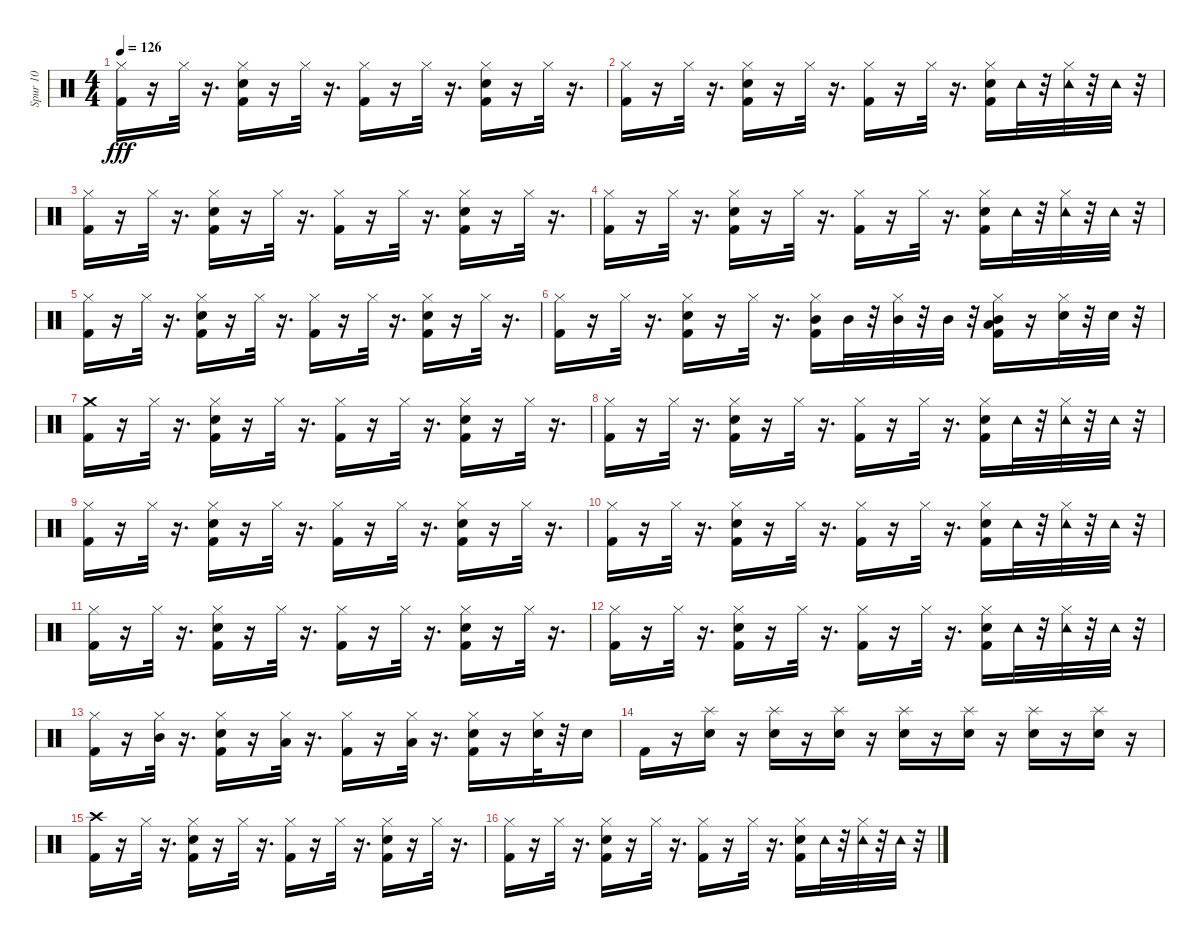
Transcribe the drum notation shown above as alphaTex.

\track ("Spur 10" "Spur 10") {instrument percussion}
\staff {score}
\articulation defaults
\ts (4 4)
\tempo 126
\clef neutral
\ks c
("Hi-Hat (closed)" "Kick (hit) 2").16{dy fff} r.16 "Hi-Hat (closed)".32 r.16{d} ("Hi-Hat (closed)" "Kick (hit) 2" "Snare (hit) 2").16 r.16 "Hi-Hat (closed)".32 r.16{d} ("Hi-Hat (closed)" "Kick (hit) 2").16 r.16 "Hi-Hat (closed)".32 r.16{d} ("Hi-Hat (closed)" "Snare (hit) 2" "Kick (hit) 2").16 r.16 "Hi-Hat (closed)".32 r.16{d} |
("Hi-Hat (closed)" "Kick (hit) 2").16 r.16 "Hi-Hat (closed)".32 r.16{d} ("Hi-Hat (closed)" "Snare (hit) 2" "Kick (hit) 2").16 r.16 "Hi-Hat (closed)".32 r.16{d} ("Hi-Hat (closed)" "Kick (hit) 2").16 r.16 "Hi-Hat (closed)".32 r.16{d} ("Hi-Hat (closed)" "Snare (hit) 2" "Kick (hit) 2").16 "Tambourine (hit)".32 r.32 ("Hi-Hat (closed)" "Tambourine (hit)").32 r.32 "Tambourine (hit)".32 r.32 |
("Hi-Hat (closed)" "Kick (hit) 2").16 r.16 "Hi-Hat (closed)".32 r.16{d} ("Hi-Hat (closed)" "Kick (hit) 2" "Snare (hit) 2").16 r.16 "Hi-Hat (closed)".32 r.16{d} ("Hi-Hat (closed)" "Kick (hit) 2").16 r.16 "Hi-Hat (closed)".32 r.16{d} ("Hi-Hat (closed)" "Snare (hit) 2" "Kick (hit) 2").16 r.16 "Hi-Hat (closed)".32 r.16{d} |
("Hi-Hat (closed)" "Kick (hit) 2").16 r.16 "Hi-Hat (closed)".32 r.16{d} ("Hi-Hat (closed)" "Snare (hit) 2" "Kick (hit) 2").16 r.16 "Hi-Hat (closed)".32 r.16{d} ("Hi-Hat (closed)" "Kick (hit) 2").16 r.16 "Hi-Hat (closed)".32 r.16{d} ("Hi-Hat (closed)" "Snare (hit) 2" "Kick (hit) 2").16 "Tambourine (hit)".32 r.32 ("Hi-Hat (closed)" "Tambourine (hit)").32 r.32 "Tambourine (hit)".32 r.32 |
("Hi-Hat (closed)" "Kick (hit) 2").16 r.16 "Hi-Hat (closed)".32 r.16{d} ("Hi-Hat (closed)" "Kick (hit) 2" "Snare (hit) 2").16 r.16 "Hi-Hat (closed)".32 r.16{d} ("Hi-Hat (closed)" "Kick (hit) 2").16 r.16 "Hi-Hat (closed)".32 r.16{d} ("Hi-Hat (closed)" "Snare (hit) 2" "Kick (hit) 2").16 r.16 "Hi-Hat (closed)".32 r.16{d} |
("Hi-Hat (closed)" "Kick (hit) 2").16 r.16 "Hi-Hat (closed)".32 r.16{d} ("Hi-Hat (closed)" "Snare (hit) 2" "Kick (hit) 2").16 r.16 "Hi-Hat (closed)".32 r.16{d} ("Hi-Hat (closed)" "Mid Tom (hit)" "Kick (hit) 2").16 "Mid Tom (hit)".32 r.32 ("Hi-Hat (closed)" "Mid Tom (hit)").32 r.32 "Mid Tom (hit)".32 r.32 ("Hi-Hat (closed)" "Mid Tom (hit)" "Low Tom (hit)" "Kick (hit) 2").16 r.16 ("Hi-Hat (closed)" "Snare (hit) 2").32 r.32 "Snare (hit) 2".32 r.32 |
("Crash medium (hit)" "Kick (hit) 2").16 r.16 "Hi-Hat (closed)".32 r.16{d} ("Hi-Hat (closed)" "Kick (hit) 2" "Snare (hit) 2").16 r.16 "Hi-Hat (closed)".32 r.16{d} ("Hi-Hat (closed)" "Kick (hit) 2").16 r.16 "Hi-Hat (closed)".32 r.16{d} ("Hi-Hat (closed)" "Snare (hit) 2" "Kick (hit) 2").16 r.16 "Hi-Hat (closed)".32 r.16{d} |
("Hi-Hat (closed)" "Kick (hit) 2").16 r.16 "Hi-Hat (closed)".32 r.16{d} ("Hi-Hat (closed)" "Snare (hit) 2" "Kick (hit) 2").16 r.16 "Hi-Hat (closed)".32 r.16{d} ("Hi-Hat (closed)" "Kick (hit) 2").16 r.16 "Hi-Hat (closed)".32 r.16{d} ("Hi-Hat (closed)" "Snare (hit) 2" "Kick (hit) 2").16 "Tambourine (hit)".32 r.32 ("Hi-Hat (closed)" "Tambourine (hit)").32 r.32 "Tambourine (hit)".32 r.32 |
("Hi-Hat (closed)" "Kick (hit) 2").16 r.16 "Hi-Hat (closed)".32 r.16{d} ("Hi-Hat (closed)" "Kick (hit) 2" "Snare (hit) 2").16 r.16 "Hi-Hat (closed)".32 r.16{d} ("Hi-Hat (closed)" "Kick (hit) 2").16 r.16 "Hi-Hat (closed)".32 r.16{d} ("Hi-Hat (closed)" "Snare (hit) 2" "Kick (hit) 2").16 r.16 "Hi-Hat (closed)".32 r.16{d} |
("Hi-Hat (closed)" "Kick (hit) 2").16 r.16 "Hi-Hat (closed)".32 r.16{d} ("Hi-Hat (closed)" "Snare (hit) 2" "Kick (hit) 2").16 r.16 "Hi-Hat (closed)".32 r.16{d} ("Hi-Hat (closed)" "Kick (hit) 2").16 r.16 "Hi-Hat (closed)".32 r.16{d} ("Hi-Hat (closed)" "Snare (hit) 2" "Kick (hit) 2").16 "Tambourine (hit)".32 r.32 ("Hi-Hat (closed)" "Tambourine (hit)").32 r.32 "Tambourine (hit)".32 r.32 |
("Hi-Hat (closed)" "Kick (hit) 2").16 r.16 "Hi-Hat (closed)".32 r.16{d} ("Hi-Hat (closed)" "Kick (hit) 2" "Snare (hit) 2").16 r.16 "Hi-Hat (closed)".32 r.16{d} ("Hi-Hat (closed)" "Kick (hit) 2").16 r.16 "Hi-Hat (closed)".32 r.16{d} ("Hi-Hat (closed)" "Snare (hit) 2" "Kick (hit) 2").16 r.16 "Hi-Hat (closed)".32 r.16{d} |
("Hi-Hat (closed)" "Kick (hit) 2").16 r.16 "Hi-Hat (closed)".32 r.16{d} ("Hi-Hat (closed)" "Snare (hit) 2" "Kick (hit) 2").16 r.16 "Hi-Hat (closed)".32 r.16{d} ("Hi-Hat (closed)" "Kick (hit) 2").16 r.16 "Hi-Hat (closed)".32 r.16{d} ("Hi-Hat (closed)" "Snare (hit) 2" "Kick (hit) 2").16 "Tambourine (hit)".32 r.32 ("Hi-Hat (closed)" "Tambourine (hit)").32 r.32 "Tambourine (hit)".32 r.32 |
("Hi-Hat (closed)" "Kick (hit) 2").16 r.16 ("Hi-Hat (closed)" "Mid Tom (hit)").32 r.16{d} ("Hi-Hat (closed)" "Snare (hit) 2" "Kick (hit) 2").16 r.16 ("Hi-Hat (closed)" "Low Tom (hit)").32 r.16{d} ("Hi-Hat (closed)" "Kick (hit) 2").16 r.16 ("Hi-Hat (closed)" "Low Tom (hit)").32 r.16{d} ("Hi-Hat (closed)" "Snare (hit) 2" "Kick (hit) 2").16 r.16 ("Hi-Hat (closed)" "Snare (hit) 2").32 r.32 "Snare (hit) 2".16 |
"Kick (hit) 2".16 r.16 ("Splash (hit)" "Snare (hit) 2").16 r.16 ("Splash (hit)" "Snare (hit) 2").16 r.16 ("Splash (hit)" "Snare (hit) 2").16 r.16 ("Splash (hit)" "Snare (hit) 2").16 r.16 ("Splash (hit)" "Snare (hit) 2").16 r.16 ("Splash (hit)" "Snare (hit) 2").16 r.16 ("Splash (hit)" "Snare (hit) 2").16 r.16 |
("Crash high (hit)" "Kick (hit) 2").16 r.16 "Hi-Hat (closed)".32 r.16{d} ("Hi-Hat (closed)" "Kick (hit) 2" "Snare (hit) 2").16 r.16 "Hi-Hat (closed)".32 r.16{d} ("Hi-Hat (closed)" "Kick (hit) 2").16 r.16 "Hi-Hat (closed)".32 r.16{d} ("Hi-Hat (closed)" "Snare (hit) 2" "Kick (hit) 2").16 r.16 "Hi-Hat (closed)".32 r.16{d} |
("Hi-Hat (closed)" "Kick (hit) 2").16 r.16 "Hi-Hat (closed)".32 r.16{d} ("Hi-Hat (closed)" "Snare (hit) 2" "Kick (hit) 2").16 r.16 "Hi-Hat (closed)".32 r.16{d} ("Hi-Hat (closed)" "Kick (hit) 2").16 r.16 "Hi-Hat (closed)".32 r.16{d} ("Hi-Hat (closed)" "Snare (hit) 2" "Kick (hit) 2").16 "Tambourine (hit)".32 r.32 ("Hi-Hat (closed)" "Tambourine (hit)").32 r.32 "Tambourine (hit)".32 r.32
